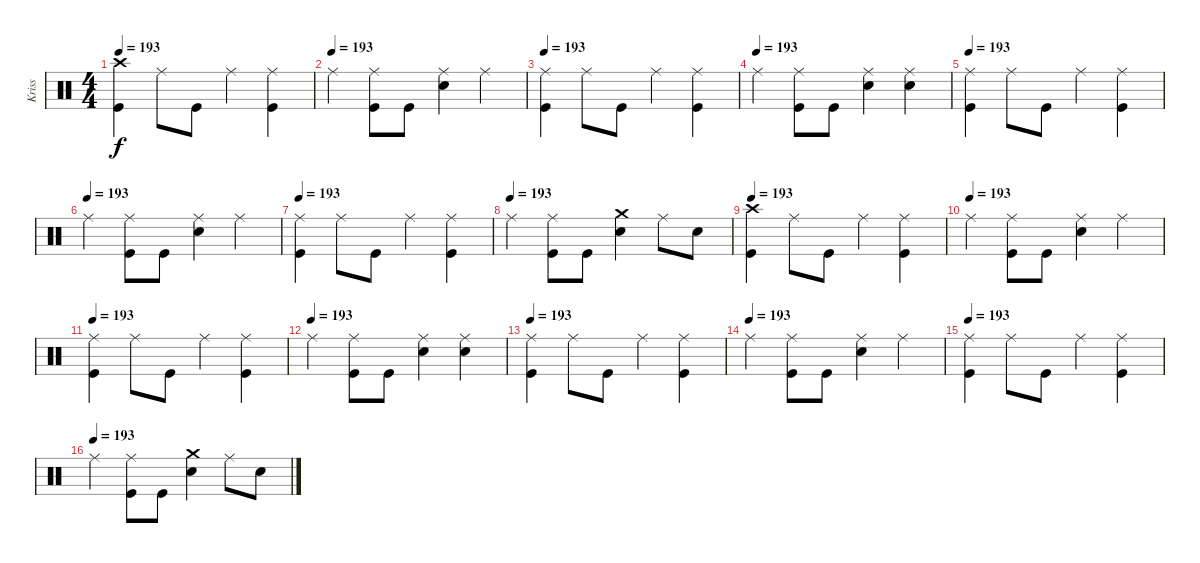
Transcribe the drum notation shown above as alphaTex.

\track ("Kriss" "Kriss") {instrument percussion}
\staff {score}
\articulation defaults
\ts (4 4)
\tempo 193
\clef neutral
\ks c
("Crash high (hit)" "Kick (hit)").4{dy f} "Ride (middle)".8 "Kick (hit)".8 "Ride (middle)".4 ("Ride (middle)" "Kick (hit)").4 |
\tempo (193)
"Ride (middle)".4 ("Ride (middle)" "Kick (hit)").8 "Kick (hit)".8 ("Ride (middle)" "Snare (hit) 2").4 "Ride (middle)".4 |
\tempo 193
("Ride (middle)" "Kick (hit)").4 "Ride (middle)".8 "Kick (hit)".8 "Ride (middle)".4 ("Ride (middle)" "Kick (hit)").4 |
\tempo (193)
"Ride (middle)".4 ("Ride (middle)" "Kick (hit)").8 "Kick (hit)".8 ("Ride (middle)" "Snare (hit) 2").4 ("Ride (middle)" "Snare (hit) 2").4 |
\tempo 193
("Ride (middle)" "Kick (hit)").4 "Ride (middle)".8 "Kick (hit)".8 "Ride (middle)".4 ("Ride (middle)" "Kick (hit)").4 |
\tempo (193)
"Ride (middle)".4 ("Ride (middle)" "Kick (hit)").8 "Kick (hit)".8 ("Ride (middle)" "Snare (hit) 2").4 "Ride (middle)".4 |
\tempo 193
("Ride (middle)" "Kick (hit)").4 "Ride (middle)".8 "Kick (hit)".8 "Ride (middle)".4 ("Ride (middle)" "Kick (hit)").4 |
\tempo (193)
"Ride (middle)".4 ("Ride (middle)" "Kick (hit)").8 "Kick (hit)".8 ("Crash medium (hit)" "Snare (hit) 2").4 "Ride (middle)".8 "Snare (hit) 2".8 |
\tempo 193
("Crash high (hit)" "Kick (hit)").4 "Ride (middle)".8 "Kick (hit)".8 "Ride (middle)".4 ("Ride (middle)" "Kick (hit)").4 |
\tempo (193)
"Ride (middle)".4 ("Ride (middle)" "Kick (hit)").8 "Kick (hit)".8 ("Ride (middle)" "Snare (hit) 2").4 "Ride (middle)".4 |
\tempo 193
("Ride (middle)" "Kick (hit)").4 "Ride (middle)".8 "Kick (hit)".8 "Ride (middle)".4 ("Ride (middle)" "Kick (hit)").4 |
\tempo (193)
"Ride (middle)".4 ("Ride (middle)" "Kick (hit)").8 "Kick (hit)".8 ("Ride (middle)" "Snare (hit) 2").4 ("Ride (middle)" "Snare (hit) 2").4 |
\tempo 193
("Ride (middle)" "Kick (hit)").4 "Ride (middle)".8 "Kick (hit)".8 "Ride (middle)".4 ("Ride (middle)" "Kick (hit)").4 |
\tempo (193)
"Ride (middle)".4 ("Ride (middle)" "Kick (hit)").8 "Kick (hit)".8 ("Ride (middle)" "Snare (hit) 2").4 "Ride (middle)".4 |
\tempo 193
("Ride (middle)" "Kick (hit)").4 "Ride (middle)".8 "Kick (hit)".8 "Ride (middle)".4 ("Ride (middle)" "Kick (hit)").4 |
\tempo (193)
"Ride (middle)".4 ("Ride (middle)" "Kick (hit)").8 "Kick (hit)".8 ("Crash medium (hit)" "Snare (hit) 2").4 "Ride (middle)".8 "Snare (hit) 2".8
